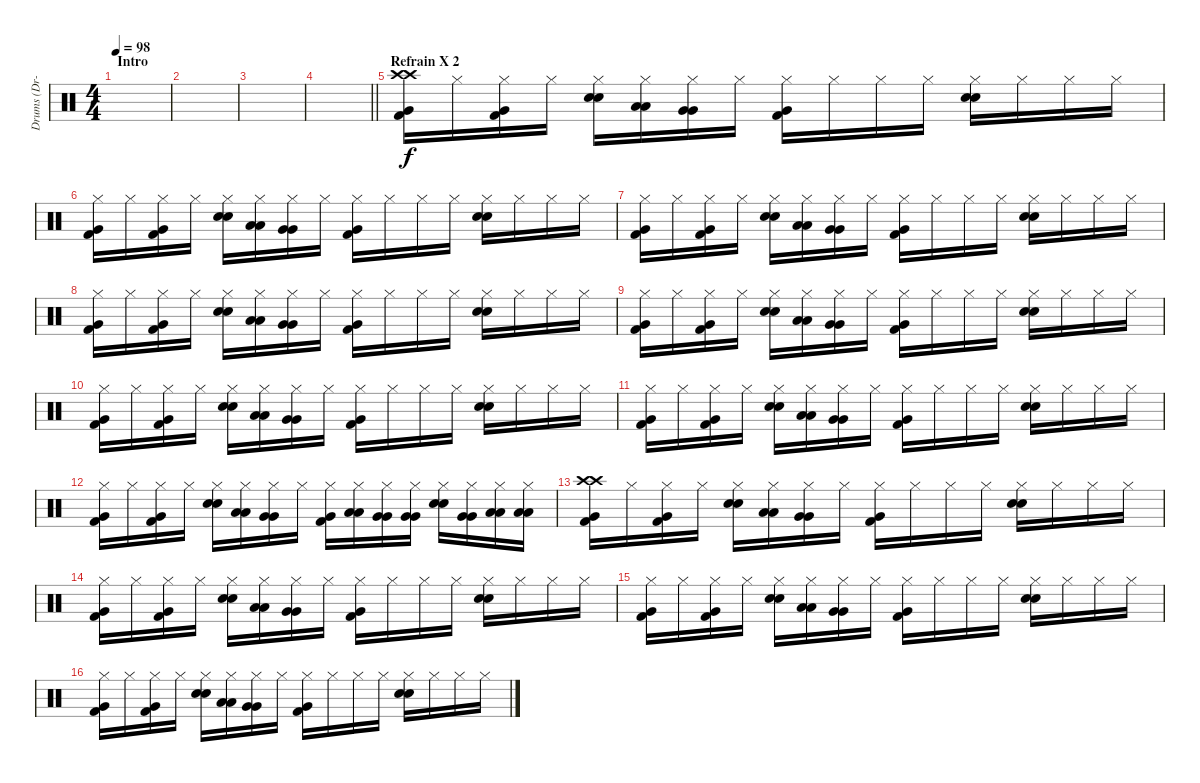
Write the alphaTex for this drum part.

\track ("Drums (Dr-0)" "Drums (Dr-") {instrument percussion}
\staff {score}
\articulation defaults
\ts (4 4)
\section ("" "Intro")
\tempo 98
\clef neutral
\ks c
|
|
|
\barLineRight lightlight
|
\section ("" "Refrain X 2")
("Crash high (hit)" "Crash high (hit)" "Very Low Tom (hit)" "Kick (hit) 2").16 "Hi-Hat (closed)".16 ("Hi-Hat (closed)" "Very Low Tom (hit)" "Kick (hit) 2").16 "Hi-Hat (closed)".16 ("Hi-Hat (closed)" "Electric Snare (hit)" "Snare (hit) 2").16 ("Hi-Hat (closed)" "Low Tom (hit)" "Low Tom (hit)").16 ("Hi-Hat (closed)" "Very Low Tom (hit)" "Very Low Tom (hit)").16 "Hi-Hat (closed)".16 ("Hi-Hat (closed)" "Very Low Tom (hit)" "Kick (hit) 2").16 "Hi-Hat (closed)".16 "Hi-Hat (closed)".16 "Hi-Hat (closed)".16 ("Hi-Hat (closed)" "Electric Snare (hit)" "Snare (hit) 2").16 "Hi-Hat (closed)".16 "Hi-Hat (closed)".16 "Hi-Hat (closed)".16 |
("Hi-Hat (closed)" "Very Low Tom (hit)" "Kick (hit) 2").16 "Hi-Hat (closed)".16 ("Hi-Hat (closed)" "Very Low Tom (hit)" "Kick (hit) 2").16 "Hi-Hat (closed)".16 ("Hi-Hat (closed)" "Electric Snare (hit)" "Snare (hit) 2").16 ("Hi-Hat (closed)" "Low Tom (hit)" "Low Tom (hit)").16 ("Hi-Hat (closed)" "Very Low Tom (hit)" "Very Low Tom (hit)").16 "Hi-Hat (closed)".16 ("Hi-Hat (closed)" "Very Low Tom (hit)" "Kick (hit) 2").16 "Hi-Hat (closed)".16 "Hi-Hat (closed)".16 "Hi-Hat (closed)".16 ("Hi-Hat (closed)" "Electric Snare (hit)" "Snare (hit) 2").16 "Hi-Hat (closed)".16 "Hi-Hat (closed)".16 "Hi-Hat (closed)".16 |
("Hi-Hat (closed)" "Very Low Tom (hit)" "Kick (hit) 2").16 "Hi-Hat (closed)".16 ("Hi-Hat (closed)" "Very Low Tom (hit)" "Kick (hit) 2").16 "Hi-Hat (closed)".16 ("Hi-Hat (closed)" "Electric Snare (hit)" "Snare (hit) 2").16 ("Hi-Hat (closed)" "Low Tom (hit)" "Low Tom (hit)").16 ("Hi-Hat (closed)" "Very Low Tom (hit)" "Very Low Tom (hit)").16 "Hi-Hat (closed)".16 ("Hi-Hat (closed)" "Very Low Tom (hit)" "Kick (hit) 2").16 "Hi-Hat (closed)".16 "Hi-Hat (closed)".16 "Hi-Hat (closed)".16 ("Hi-Hat (closed)" "Electric Snare (hit)" "Snare (hit) 2").16 "Hi-Hat (closed)".16 "Hi-Hat (closed)".16 "Hi-Hat (closed)".16 |
("Hi-Hat (closed)" "Very Low Tom (hit)" "Kick (hit) 2").16 "Hi-Hat (closed)".16 ("Hi-Hat (closed)" "Very Low Tom (hit)" "Kick (hit) 2").16 "Hi-Hat (closed)".16 ("Hi-Hat (closed)" "Electric Snare (hit)" "Snare (hit) 2").16 ("Hi-Hat (closed)" "Low Tom (hit)" "Low Tom (hit)").16 ("Hi-Hat (closed)" "Very Low Tom (hit)" "Very Low Tom (hit)").16 "Hi-Hat (closed)".16 ("Hi-Hat (closed)" "Very Low Tom (hit)" "Kick (hit) 2").16 "Hi-Hat (closed)".16 "Hi-Hat (closed)".16 "Hi-Hat (closed)".16 ("Hi-Hat (closed)" "Electric Snare (hit)" "Snare (hit) 2").16 "Hi-Hat (closed)".16 "Hi-Hat (closed)".16 "Hi-Hat (closed)".16 |
("Hi-Hat (closed)" "Very Low Tom (hit)" "Kick (hit) 2").16 "Hi-Hat (closed)".16 ("Hi-Hat (closed)" "Very Low Tom (hit)" "Kick (hit) 2").16 "Hi-Hat (closed)".16 ("Hi-Hat (closed)" "Electric Snare (hit)" "Snare (hit) 2").16 ("Hi-Hat (closed)" "Low Tom (hit)" "Low Tom (hit)").16 ("Hi-Hat (closed)" "Very Low Tom (hit)" "Very Low Tom (hit)").16 "Hi-Hat (closed)".16 ("Hi-Hat (closed)" "Very Low Tom (hit)" "Kick (hit) 2").16 "Hi-Hat (closed)".16 "Hi-Hat (closed)".16 "Hi-Hat (closed)".16 ("Hi-Hat (closed)" "Electric Snare (hit)" "Snare (hit) 2").16 "Hi-Hat (closed)".16 "Hi-Hat (closed)".16 "Hi-Hat (closed)".16 |
("Hi-Hat (closed)" "Very Low Tom (hit)" "Kick (hit) 2").16 "Hi-Hat (closed)".16 ("Hi-Hat (closed)" "Very Low Tom (hit)" "Kick (hit) 2").16 "Hi-Hat (closed)".16 ("Hi-Hat (closed)" "Electric Snare (hit)" "Snare (hit) 2").16 ("Hi-Hat (closed)" "Low Tom (hit)" "Low Tom (hit)").16 ("Hi-Hat (closed)" "Very Low Tom (hit)" "Very Low Tom (hit)").16 "Hi-Hat (closed)".16 ("Hi-Hat (closed)" "Very Low Tom (hit)" "Kick (hit) 2").16 "Hi-Hat (closed)".16 "Hi-Hat (closed)".16 "Hi-Hat (closed)".16 ("Hi-Hat (closed)" "Electric Snare (hit)" "Snare (hit) 2").16 "Hi-Hat (closed)".16 "Hi-Hat (closed)".16 "Hi-Hat (closed)".16 |
("Hi-Hat (closed)" "Very Low Tom (hit)" "Kick (hit) 2").16 "Hi-Hat (closed)".16 ("Hi-Hat (closed)" "Very Low Tom (hit)" "Kick (hit) 2").16 "Hi-Hat (closed)".16 ("Hi-Hat (closed)" "Electric Snare (hit)" "Snare (hit) 2").16 ("Hi-Hat (closed)" "Low Tom (hit)" "Low Tom (hit)").16 ("Hi-Hat (closed)" "Very Low Tom (hit)" "Very Low Tom (hit)").16 "Hi-Hat (closed)".16 ("Hi-Hat (closed)" "Very Low Tom (hit)" "Kick (hit) 2").16 "Hi-Hat (closed)".16 "Hi-Hat (closed)".16 "Hi-Hat (closed)".16 ("Hi-Hat (closed)" "Electric Snare (hit)" "Snare (hit) 2").16 "Hi-Hat (closed)".16 "Hi-Hat (closed)".16 "Hi-Hat (closed)".16 |
("Hi-Hat (closed)" "Very Low Tom (hit)" "Kick (hit) 2").16 "Hi-Hat (closed)".16 ("Hi-Hat (closed)" "Very Low Tom (hit)" "Kick (hit) 2").16 "Hi-Hat (closed)".16 ("Hi-Hat (closed)" "Electric Snare (hit)" "Snare (hit) 2").16 ("Hi-Hat (closed)" "Low Tom (hit)" "Low Tom (hit)").16 ("Hi-Hat (closed)" "Very Low Tom (hit)" "Very Low Tom (hit)").16 "Hi-Hat (closed)".16 ("Hi-Hat (closed)" "Very Low Tom (hit)" "Kick (hit) 2").16 ("Hi-Hat (closed)" "Low Tom (hit)" "Low Tom (hit)").16 ("Hi-Hat (closed)" "Very Low Tom (hit)" "Very Low Tom (hit)").16 ("Hi-Hat (closed)" "Very Low Tom (hit)" "Very Low Tom (hit)").16 ("Hi-Hat (closed)" "Electric Snare (hit)" "Snare (hit) 2").16 ("Hi-Hat (closed)" "Very Low Tom (hit)" "Very Low Tom (hit)").16 ("Hi-Hat (closed)" "Low Floor Tom (hit)" "Low Floor Tom (hit)").16 ("Hi-Hat (closed)" "Low Floor Tom (hit)" "Low Floor Tom (hit)").16 |
("Crash high (hit)" "Crash high (hit)" "Very Low Tom (hit)" "Kick (hit) 2").16 "Hi-Hat (closed)".16 ("Hi-Hat (closed)" "Very Low Tom (hit)" "Kick (hit) 2").16 "Hi-Hat (closed)".16 ("Hi-Hat (closed)" "Electric Snare (hit)" "Snare (hit) 2").16 ("Hi-Hat (closed)" "Low Tom (hit)" "Low Tom (hit)").16 ("Hi-Hat (closed)" "Very Low Tom (hit)" "Very Low Tom (hit)").16 "Hi-Hat (closed)".16 ("Hi-Hat (closed)" "Very Low Tom (hit)" "Kick (hit) 2").16 "Hi-Hat (closed)".16 "Hi-Hat (closed)".16 "Hi-Hat (closed)".16 ("Hi-Hat (closed)" "Electric Snare (hit)" "Snare (hit) 2").16 "Hi-Hat (closed)".16 "Hi-Hat (closed)".16 "Hi-Hat (closed)".16 |
("Hi-Hat (closed)" "Very Low Tom (hit)" "Kick (hit) 2").16 "Hi-Hat (closed)".16 ("Hi-Hat (closed)" "Very Low Tom (hit)" "Kick (hit) 2").16 "Hi-Hat (closed)".16 ("Hi-Hat (closed)" "Electric Snare (hit)" "Snare (hit) 2").16 ("Hi-Hat (closed)" "Low Tom (hit)" "Low Tom (hit)").16 ("Hi-Hat (closed)" "Very Low Tom (hit)" "Very Low Tom (hit)").16 "Hi-Hat (closed)".16 ("Hi-Hat (closed)" "Very Low Tom (hit)" "Kick (hit) 2").16 "Hi-Hat (closed)".16 "Hi-Hat (closed)".16 "Hi-Hat (closed)".16 ("Hi-Hat (closed)" "Electric Snare (hit)" "Snare (hit) 2").16 "Hi-Hat (closed)".16 "Hi-Hat (closed)".16 "Hi-Hat (closed)".16 |
("Hi-Hat (closed)" "Very Low Tom (hit)" "Kick (hit) 2").16 "Hi-Hat (closed)".16 ("Hi-Hat (closed)" "Very Low Tom (hit)" "Kick (hit) 2").16 "Hi-Hat (closed)".16 ("Hi-Hat (closed)" "Electric Snare (hit)" "Snare (hit) 2").16 ("Hi-Hat (closed)" "Low Tom (hit)" "Low Tom (hit)").16 ("Hi-Hat (closed)" "Very Low Tom (hit)" "Very Low Tom (hit)").16 "Hi-Hat (closed)".16 ("Hi-Hat (closed)" "Very Low Tom (hit)" "Kick (hit) 2").16 "Hi-Hat (closed)".16 "Hi-Hat (closed)".16 "Hi-Hat (closed)".16 ("Hi-Hat (closed)" "Electric Snare (hit)" "Snare (hit) 2").16 "Hi-Hat (closed)".16 "Hi-Hat (closed)".16 "Hi-Hat (closed)".16 |
("Hi-Hat (closed)" "Very Low Tom (hit)" "Kick (hit) 2").16 "Hi-Hat (closed)".16 ("Hi-Hat (closed)" "Very Low Tom (hit)" "Kick (hit) 2").16 "Hi-Hat (closed)".16 ("Hi-Hat (closed)" "Electric Snare (hit)" "Snare (hit) 2").16 ("Hi-Hat (closed)" "Low Tom (hit)" "Low Tom (hit)").16 ("Hi-Hat (closed)" "Very Low Tom (hit)" "Very Low Tom (hit)").16 "Hi-Hat (closed)".16 ("Hi-Hat (closed)" "Very Low Tom (hit)" "Kick (hit) 2").16 "Hi-Hat (closed)".16 "Hi-Hat (closed)".16 "Hi-Hat (closed)".16 ("Hi-Hat (closed)" "Electric Snare (hit)" "Snare (hit) 2").16 "Hi-Hat (closed)".16 "Hi-Hat (closed)".16 "Hi-Hat (closed)".16
